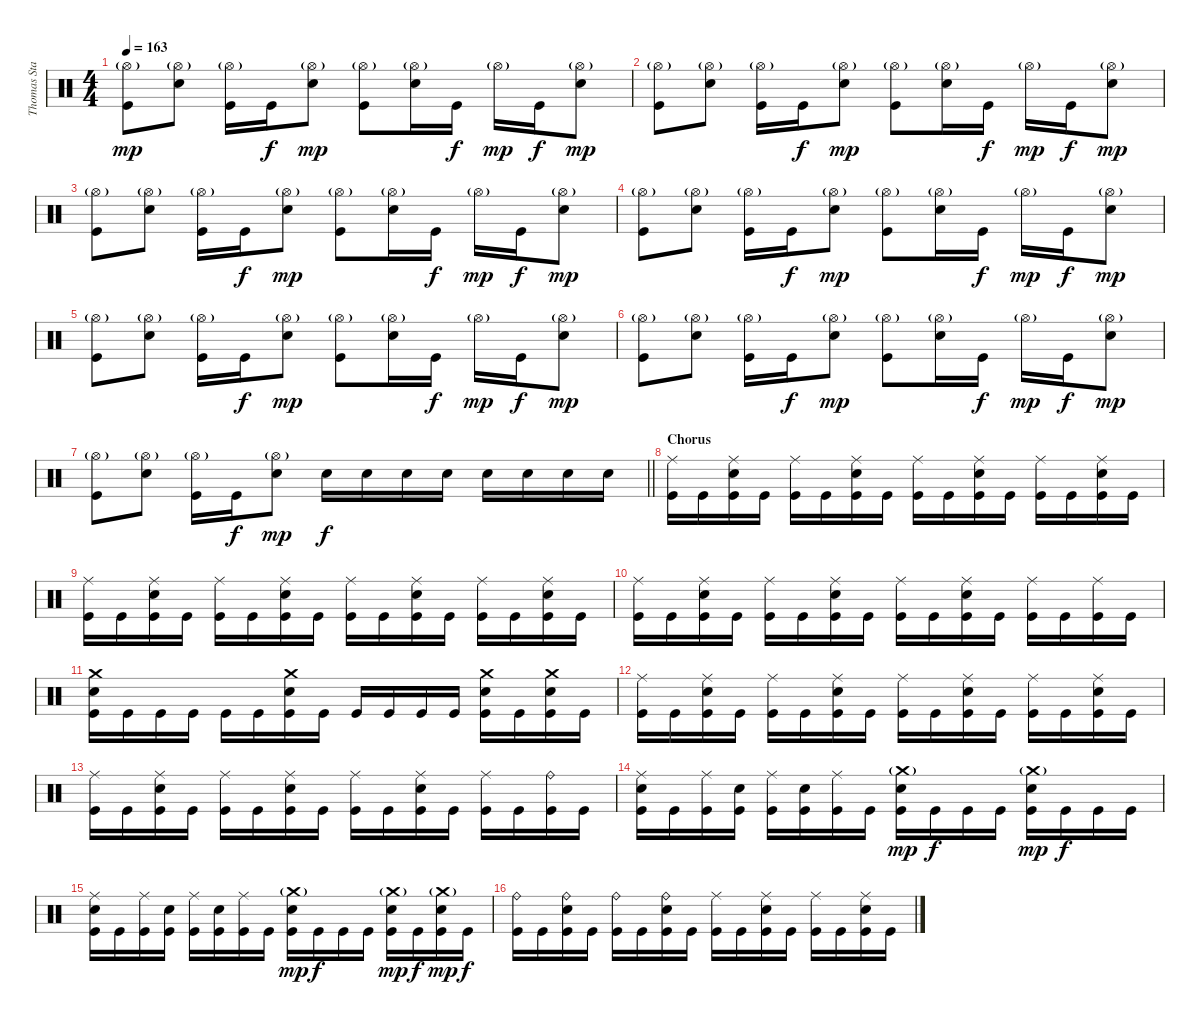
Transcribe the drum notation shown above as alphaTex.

\track ("Thomas Stauch" "Thomas Sta") {instrument percussion}
\staff {score}
\articulation defaults
\ts (4 4)
\tempo 163
\clef neutral
\ks c
("Hi-Hat (open)"{g} "Kick (hit)").8{dy mp} ("Hi-Hat (open)"{g} "Electric Snare (hit)").8 ("Hi-Hat (open)"{g} "Kick (hit)").16 "Kick (hit)".16{dy f} ("Hi-Hat (open)"{g} "Electric Snare (hit)").8{dy mp} ("Hi-Hat (open)"{g} "Kick (hit)").8 ("Hi-Hat (open)"{g} "Electric Snare (hit)").16 "Kick (hit)".16{dy f} "Hi-Hat (open)"{g}.16{dy mp} "Kick (hit)".16{dy f} ("Hi-Hat (open)"{g} "Electric Snare (hit)").8{dy mp} |
("Hi-Hat (open)"{g} "Kick (hit)").8 ("Hi-Hat (open)"{g} "Electric Snare (hit)").8 ("Hi-Hat (open)"{g} "Kick (hit)").16 "Kick (hit)".16{dy f} ("Hi-Hat (open)"{g} "Electric Snare (hit)").8{dy mp} ("Hi-Hat (open)"{g} "Kick (hit)").8 ("Hi-Hat (open)"{g} "Electric Snare (hit)").16 "Kick (hit)".16{dy f} "Hi-Hat (open)"{g}.16{dy mp} "Kick (hit)".16{dy f} ("Hi-Hat (open)"{g} "Electric Snare (hit)").8{dy mp} |
("Hi-Hat (open)"{g} "Kick (hit)").8 ("Hi-Hat (open)"{g} "Electric Snare (hit)").8 ("Hi-Hat (open)"{g} "Kick (hit)").16 "Kick (hit)".16{dy f} ("Hi-Hat (open)"{g} "Electric Snare (hit)").8{dy mp} ("Hi-Hat (open)"{g} "Kick (hit)").8 ("Hi-Hat (open)"{g} "Electric Snare (hit)").16 "Kick (hit)".16{dy f} "Hi-Hat (open)"{g}.16{dy mp} "Kick (hit)".16{dy f} ("Hi-Hat (open)"{g} "Electric Snare (hit)").8{dy mp} |
("Hi-Hat (open)"{g} "Kick (hit)").8 ("Hi-Hat (open)"{g} "Electric Snare (hit)").8 ("Hi-Hat (open)"{g} "Kick (hit)").16 "Kick (hit)".16{dy f} ("Hi-Hat (open)"{g} "Electric Snare (hit)").8{dy mp} ("Hi-Hat (open)"{g} "Kick (hit)").8 ("Hi-Hat (open)"{g} "Electric Snare (hit)").16 "Kick (hit)".16{dy f} "Hi-Hat (open)"{g}.16{dy mp} "Kick (hit)".16{dy f} ("Hi-Hat (open)"{g} "Electric Snare (hit)").8{dy mp} |
("Hi-Hat (open)"{g} "Kick (hit)").8 ("Hi-Hat (open)"{g} "Electric Snare (hit)").8 ("Hi-Hat (open)"{g} "Kick (hit)").16 "Kick (hit)".16{dy f} ("Hi-Hat (open)"{g} "Electric Snare (hit)").8{dy mp} ("Hi-Hat (open)"{g} "Kick (hit)").8 ("Hi-Hat (open)"{g} "Electric Snare (hit)").16 "Kick (hit)".16{dy f} "Hi-Hat (open)"{g}.16{dy mp} "Kick (hit)".16{dy f} ("Hi-Hat (open)"{g} "Electric Snare (hit)").8{dy mp} |
("Hi-Hat (open)"{g} "Kick (hit)").8 ("Hi-Hat (open)"{g} "Electric Snare (hit)").8 ("Hi-Hat (open)"{g} "Kick (hit)").16 "Kick (hit)".16{dy f} ("Hi-Hat (open)"{g} "Electric Snare (hit)").8{dy mp} ("Hi-Hat (open)"{g} "Kick (hit)").8 ("Hi-Hat (open)"{g} "Electric Snare (hit)").16 "Kick (hit)".16{dy f} "Hi-Hat (open)"{g}.16{dy mp} "Kick (hit)".16{dy f} ("Hi-Hat (open)"{g} "Electric Snare (hit)").8{dy mp} |
\barLineRight lightlight
("Hi-Hat (open)"{g} "Kick (hit)").8 ("Hi-Hat (open)"{g} "Electric Snare (hit)").8 ("Hi-Hat (open)"{g} "Kick (hit)").16 "Kick (hit)".16{dy f} ("Hi-Hat (open)"{g} "Electric Snare (hit)").8{dy mp} "Electric Snare (hit)".16{dy f} "Electric Snare (hit)".16 "Electric Snare (hit)".16 "Electric Snare (hit)".16 "Electric Snare (hit)".16 "Electric Snare (hit)".16 "Electric Snare (hit)".16 "Electric Snare (hit)".16 |
\section ("" "Chorus")
("Ride (middle)" "Kick (hit)").16 "Kick (hit)".16 ("Ride (middle)" "Electric Snare (hit)" "Kick (hit)").16 "Kick (hit)".16 ("Ride (middle)" "Kick (hit)").16 "Kick (hit)".16 ("Ride (middle)" "Electric Snare (hit)" "Kick (hit)").16 "Kick (hit)".16 ("Ride (middle)" "Kick (hit)").16 "Kick (hit)".16 ("Ride (middle)" "Electric Snare (hit)" "Kick (hit)").16 "Kick (hit)".16 ("Ride (middle)" "Kick (hit)").16 "Kick (hit)".16 ("Ride (middle)" "Electric Snare (hit)" "Kick (hit)").16 "Kick (hit)".16 |
("Ride (middle)" "Kick (hit)").16 "Kick (hit)".16 ("Ride (middle)" "Electric Snare (hit)" "Kick (hit)").16 "Kick (hit)".16 ("Ride (middle)" "Kick (hit)").16 "Kick (hit)".16 ("Ride (middle)" "Electric Snare (hit)" "Kick (hit)").16 "Kick (hit)".16 ("Ride (middle)" "Kick (hit)").16 "Kick (hit)".16 ("Ride (middle)" "Electric Snare (hit)" "Kick (hit)").16 "Kick (hit)".16 ("Ride (middle)" "Kick (hit)").16 "Kick (hit)".16 ("Ride (middle)" "Electric Snare (hit)" "Kick (hit)").16 "Kick (hit)".16 |
("Ride (middle)" "Kick (hit)").16 "Kick (hit)".16 ("Ride (middle)" "Electric Snare (hit)" "Kick (hit)").16 "Kick (hit)".16 ("Ride (middle)" "Kick (hit)").16 "Kick (hit)".16 ("Ride (middle)" "Electric Snare (hit)" "Kick (hit)").16 "Kick (hit)".16 ("Ride (middle)" "Kick (hit)").16 "Kick (hit)".16 ("Ride (middle)" "Electric Snare (hit)" "Kick (hit)").16 "Kick (hit)".16 ("Ride (middle)" "Kick (hit)").16 "Kick (hit)".16 ("Ride (middle)" "Kick (hit)").16 "Kick (hit)".16 |
("Crash medium (hit)" "Electric Snare (hit)" "Kick (hit)").16 "Kick (hit)".16 "Kick (hit)".16 "Kick (hit)".16 "Kick (hit)".16 "Kick (hit)".16 ("Crash medium (hit)" "Electric Snare (hit)" "Kick (hit)").16 "Kick (hit)".16 "Kick (hit)".16 "Kick (hit)".16 "Kick (hit)".16 "Kick (hit)".16 ("Crash medium (hit)" "Electric Snare (hit)" "Kick (hit)").16 "Kick (hit)".16 ("Crash medium (hit)" "Electric Snare (hit)" "Kick (hit)").16 "Kick (hit)".16 |
("Ride (middle)" "Kick (hit)").16 "Kick (hit)".16 ("Ride (middle)" "Electric Snare (hit)" "Kick (hit)").16 "Kick (hit)".16 ("Ride (middle)" "Kick (hit)").16 "Kick (hit)".16 ("Ride (middle)" "Electric Snare (hit)" "Kick (hit)").16 "Kick (hit)".16 ("Ride (middle)" "Kick (hit)").16 "Kick (hit)".16 ("Ride (middle)" "Electric Snare (hit)" "Kick (hit)").16 "Kick (hit)".16 ("Ride (middle)" "Kick (hit)").16 "Kick (hit)".16 ("Ride (middle)" "Electric Snare (hit)" "Kick (hit)").16 "Kick (hit)".16 |
("Ride (middle)" "Kick (hit)").16 "Kick (hit)".16 ("Ride (middle)" "Electric Snare (hit)" "Kick (hit)").16 "Kick (hit)".16 ("Ride (middle)" "Kick (hit)").16 "Kick (hit)".16 ("Ride (middle)" "Electric Snare (hit)" "Kick (hit)").16 "Kick (hit)".16 ("Ride (middle)" "Kick (hit)").16 "Kick (hit)".16 ("Ride (middle)" "Electric Snare (hit)" "Kick (hit)").16 "Kick (hit)".16 ("Ride (middle)" "Kick (hit)").16 "Kick (hit)".16 ("Ride (bell)" "Kick (hit)").16 "Kick (hit)".16 |
("Ride (middle)" "Electric Snare (hit)" "Kick (hit)").16 "Kick (hit)".16 ("Ride (middle)" "Kick (hit)").16 ("Electric Snare (hit)" "Kick (hit)").16 ("Ride (middle)" "Kick (hit)").16 ("Electric Snare (hit)" "Kick (hit)").16 ("Ride (middle)" "Kick (hit)").16 "Kick (hit)".16 ("Crash medium (hit)"{g} "Electric Snare (hit)" "Kick (hit)").16{dy mp} "Kick (hit)".16{dy f} "Kick (hit)".16 "Kick (hit)".16 ("Crash medium (hit)"{g} "Electric Snare (hit)" "Kick (hit)").16{dy mp} "Kick (hit)".16{dy f} "Kick (hit)".16 "Kick (hit)".16 |
("Ride (middle)" "Electric Snare (hit)" "Kick (hit)").16 "Kick (hit)".16 ("Ride (middle)" "Kick (hit)").16 ("Electric Snare (hit)" "Kick (hit)").16 ("Ride (middle)" "Kick (hit)").16 ("Electric Snare (hit)" "Kick (hit)").16 ("Ride (middle)" "Kick (hit)").16 "Kick (hit)".16 ("Crash medium (hit)"{g} "Electric Snare (hit)" "Kick (hit)").16{dy mp} "Kick (hit)".16{dy f} "Kick (hit)".16 "Kick (hit)".16 ("Crash medium (hit)"{g} "Electric Snare (hit)" "Kick (hit)").16{dy mp} "Kick (hit)".16{dy f} ("Crash medium (hit)"{g} "Electric Snare (hit)" "Kick (hit)").16{dy mp} "Kick (hit)".16{dy f} |
("Ride (bell)" "Kick (hit)").16 "Kick (hit)".16 ("Ride (bell)" "Electric Snare (hit)" "Kick (hit)").16 "Kick (hit)".16 ("Ride (bell)" "Kick (hit)").16 "Kick (hit)".16 ("Ride (bell)" "Electric Snare (hit)" "Kick (hit)").16 "Kick (hit)".16 ("Ride (middle)" "Kick (hit)").16 "Kick (hit)".16 ("Ride (middle)" "Electric Snare (hit)" "Kick (hit)").16 "Kick (hit)".16 ("Ride (middle)" "Kick (hit)").16 "Kick (hit)".16 ("Ride (middle)" "Electric Snare (hit)" "Kick (hit)").16 "Kick (hit)".16
